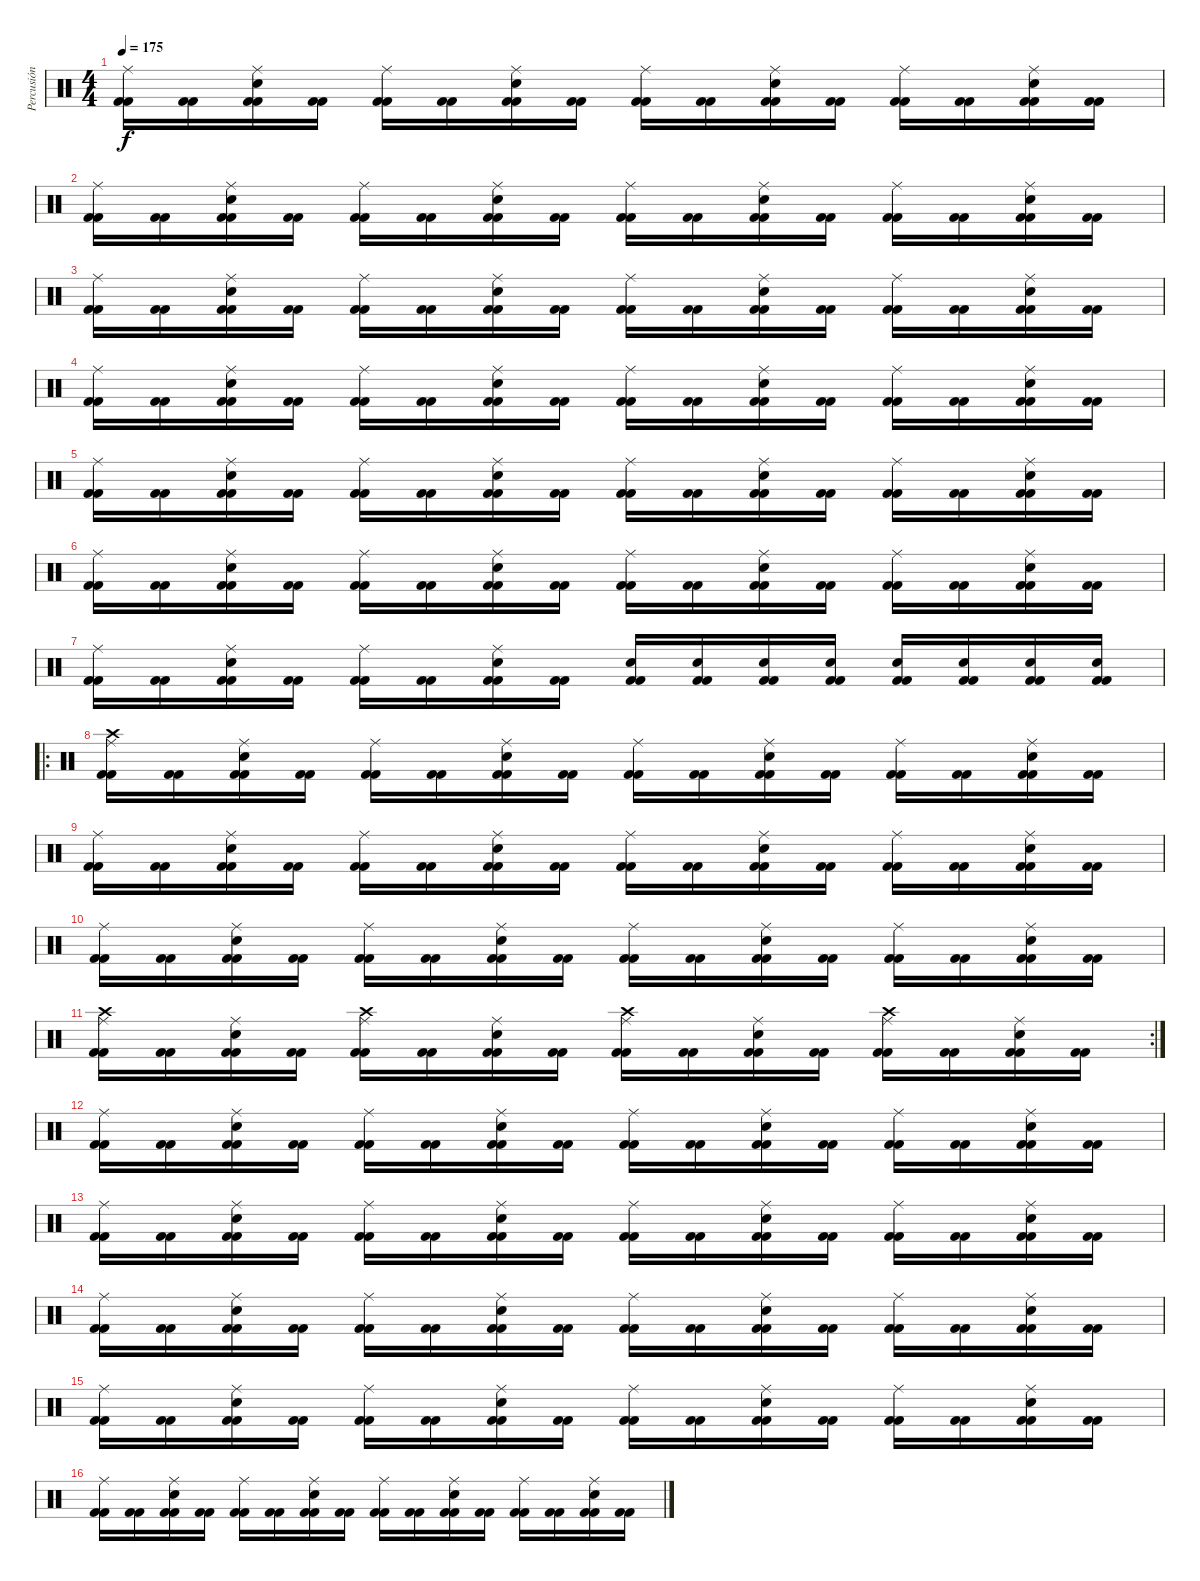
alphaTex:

\track ("Percusión" "Percusión") {instrument percussion}
\staff {score}
\articulation defaults
\ts (4 4)
\tempo 175
\clef neutral
\ks c
("Kick (hit) 2" "Kick (hit) 2" "Ride (middle)").16{dy f} ("Kick (hit) 2" "Kick (hit) 2").16 ("Kick (hit) 2" "Kick (hit) 2" "Electric Snare (hit)" "Ride (middle)").16 ("Kick (hit) 2" "Kick (hit) 2").16 ("Kick (hit) 2" "Kick (hit) 2" "Ride (middle)").16 ("Kick (hit) 2" "Kick (hit) 2").16 ("Kick (hit) 2" "Kick (hit) 2" "Electric Snare (hit)" "Ride (middle)").16 ("Kick (hit) 2" "Kick (hit) 2").16 ("Kick (hit) 2" "Kick (hit) 2" "Ride (middle)").16 ("Kick (hit) 2" "Kick (hit) 2").16 ("Kick (hit) 2" "Kick (hit) 2" "Electric Snare (hit)" "Ride (middle)").16 ("Kick (hit) 2" "Kick (hit) 2").16 ("Kick (hit) 2" "Kick (hit) 2" "Ride (middle)").16 ("Kick (hit) 2" "Kick (hit) 2").16 ("Kick (hit) 2" "Kick (hit) 2" "Electric Snare (hit)" "Ride (middle)").16 ("Kick (hit) 2" "Kick (hit) 2").16 |
("Kick (hit) 2" "Kick (hit) 2" "Ride (middle)").16 ("Kick (hit) 2" "Kick (hit) 2").16 ("Kick (hit) 2" "Kick (hit) 2" "Electric Snare (hit)" "Ride (middle)").16 ("Kick (hit) 2" "Kick (hit) 2").16 ("Kick (hit) 2" "Kick (hit) 2" "Ride (middle)").16 ("Kick (hit) 2" "Kick (hit) 2").16 ("Kick (hit) 2" "Kick (hit) 2" "Electric Snare (hit)" "Ride (middle)").16 ("Kick (hit) 2" "Kick (hit) 2").16 ("Kick (hit) 2" "Kick (hit) 2" "Ride (middle)").16 ("Kick (hit) 2" "Kick (hit) 2").16 ("Kick (hit) 2" "Kick (hit) 2" "Electric Snare (hit)" "Ride (middle)").16 ("Kick (hit) 2" "Kick (hit) 2").16 ("Kick (hit) 2" "Kick (hit) 2" "Ride (middle)").16 ("Kick (hit) 2" "Kick (hit) 2").16 ("Kick (hit) 2" "Kick (hit) 2" "Electric Snare (hit)" "Ride (middle)").16 ("Kick (hit) 2" "Kick (hit) 2").16 |
("Kick (hit) 2" "Kick (hit) 2" "Ride (middle)").16 ("Kick (hit) 2" "Kick (hit) 2").16 ("Kick (hit) 2" "Kick (hit) 2" "Electric Snare (hit)" "Ride (middle)").16 ("Kick (hit) 2" "Kick (hit) 2").16 ("Kick (hit) 2" "Kick (hit) 2" "Ride (middle)").16 ("Kick (hit) 2" "Kick (hit) 2").16 ("Kick (hit) 2" "Kick (hit) 2" "Electric Snare (hit)" "Ride (middle)").16 ("Kick (hit) 2" "Kick (hit) 2").16 ("Kick (hit) 2" "Kick (hit) 2" "Ride (middle)").16 ("Kick (hit) 2" "Kick (hit) 2").16 ("Kick (hit) 2" "Kick (hit) 2" "Electric Snare (hit)" "Ride (middle)").16 ("Kick (hit) 2" "Kick (hit) 2").16 ("Kick (hit) 2" "Kick (hit) 2" "Ride (middle)").16 ("Kick (hit) 2" "Kick (hit) 2").16 ("Kick (hit) 2" "Kick (hit) 2" "Electric Snare (hit)" "Ride (middle)").16 ("Kick (hit) 2" "Kick (hit) 2").16 |
("Kick (hit) 2" "Kick (hit) 2" "Ride (middle)").16 ("Kick (hit) 2" "Kick (hit) 2").16 ("Kick (hit) 2" "Kick (hit) 2" "Electric Snare (hit)" "Ride (middle)").16 ("Kick (hit) 2" "Kick (hit) 2").16 ("Kick (hit) 2" "Kick (hit) 2" "Ride (middle)").16 ("Kick (hit) 2" "Kick (hit) 2").16 ("Kick (hit) 2" "Kick (hit) 2" "Electric Snare (hit)" "Ride (middle)").16 ("Kick (hit) 2" "Kick (hit) 2").16 ("Kick (hit) 2" "Kick (hit) 2" "Ride (middle)").16 ("Kick (hit) 2" "Kick (hit) 2").16 ("Kick (hit) 2" "Kick (hit) 2" "Electric Snare (hit)" "Ride (middle)").16 ("Kick (hit) 2" "Kick (hit) 2").16 ("Kick (hit) 2" "Kick (hit) 2" "Ride (middle)").16 ("Kick (hit) 2" "Kick (hit) 2").16 ("Kick (hit) 2" "Kick (hit) 2" "Electric Snare (hit)" "Ride (middle)").16 ("Kick (hit) 2" "Kick (hit) 2").16 |
("Kick (hit) 2" "Kick (hit) 2" "Ride (middle)").16 ("Kick (hit) 2" "Kick (hit) 2").16 ("Kick (hit) 2" "Kick (hit) 2" "Electric Snare (hit)" "Ride (middle)").16 ("Kick (hit) 2" "Kick (hit) 2").16 ("Kick (hit) 2" "Kick (hit) 2" "Ride (middle)").16 ("Kick (hit) 2" "Kick (hit) 2").16 ("Kick (hit) 2" "Kick (hit) 2" "Electric Snare (hit)" "Ride (middle)").16 ("Kick (hit) 2" "Kick (hit) 2").16 ("Kick (hit) 2" "Kick (hit) 2" "Ride (middle)").16 ("Kick (hit) 2" "Kick (hit) 2").16 ("Kick (hit) 2" "Kick (hit) 2" "Electric Snare (hit)" "Ride (middle)").16 ("Kick (hit) 2" "Kick (hit) 2").16 ("Kick (hit) 2" "Kick (hit) 2" "Ride (middle)").16 ("Kick (hit) 2" "Kick (hit) 2").16 ("Kick (hit) 2" "Kick (hit) 2" "Electric Snare (hit)" "Ride (middle)").16 ("Kick (hit) 2" "Kick (hit) 2").16 |
("Kick (hit) 2" "Kick (hit) 2" "Ride (middle)").16 ("Kick (hit) 2" "Kick (hit) 2").16 ("Kick (hit) 2" "Kick (hit) 2" "Electric Snare (hit)" "Ride (middle)").16 ("Kick (hit) 2" "Kick (hit) 2").16 ("Kick (hit) 2" "Kick (hit) 2" "Ride (middle)").16 ("Kick (hit) 2" "Kick (hit) 2").16 ("Kick (hit) 2" "Kick (hit) 2" "Electric Snare (hit)" "Ride (middle)").16 ("Kick (hit) 2" "Kick (hit) 2").16 ("Kick (hit) 2" "Kick (hit) 2" "Ride (middle)").16 ("Kick (hit) 2" "Kick (hit) 2").16 ("Kick (hit) 2" "Kick (hit) 2" "Electric Snare (hit)" "Ride (middle)").16 ("Kick (hit) 2" "Kick (hit) 2").16 ("Kick (hit) 2" "Kick (hit) 2" "Ride (middle)").16 ("Kick (hit) 2" "Kick (hit) 2").16 ("Kick (hit) 2" "Kick (hit) 2" "Electric Snare (hit)" "Ride (middle)").16 ("Kick (hit) 2" "Kick (hit) 2").16 |
("Kick (hit) 2" "Kick (hit) 2" "Ride (middle)").16 ("Kick (hit) 2" "Kick (hit) 2").16 ("Kick (hit) 2" "Kick (hit) 2" "Electric Snare (hit)" "Ride (middle)").16 ("Kick (hit) 2" "Kick (hit) 2").16 ("Kick (hit) 2" "Kick (hit) 2" "Ride (middle)").16 ("Kick (hit) 2" "Kick (hit) 2").16 ("Kick (hit) 2" "Kick (hit) 2" "Electric Snare (hit)" "Ride (middle)").16 ("Kick (hit) 2" "Kick (hit) 2").16 ("Kick (hit) 2" "Kick (hit) 2" "Electric Snare (hit)").16 ("Kick (hit) 2" "Kick (hit) 2" "Electric Snare (hit)").16 ("Kick (hit) 2" "Kick (hit) 2" "Electric Snare (hit)").16 ("Kick (hit) 2" "Kick (hit) 2" "Electric Snare (hit)").16 ("Kick (hit) 2" "Kick (hit) 2" "Electric Snare (hit)").16 ("Kick (hit) 2" "Kick (hit) 2" "Electric Snare (hit)").16 ("Kick (hit) 2" "Kick (hit) 2" "Electric Snare (hit)").16 ("Kick (hit) 2" "Kick (hit) 2" "Electric Snare (hit)").16 |
\ro
("Kick (hit) 2" "Kick (hit) 2" "Ride (middle)" "Crash high (hit)").16 ("Kick (hit) 2" "Kick (hit) 2").16 ("Kick (hit) 2" "Kick (hit) 2" "Electric Snare (hit)" "Ride (middle)").16 ("Kick (hit) 2" "Kick (hit) 2").16 ("Kick (hit) 2" "Kick (hit) 2" "Ride (middle)").16 ("Kick (hit) 2" "Kick (hit) 2").16 ("Kick (hit) 2" "Kick (hit) 2" "Electric Snare (hit)" "Ride (middle)").16 ("Kick (hit) 2" "Kick (hit) 2").16 ("Kick (hit) 2" "Kick (hit) 2" "Ride (middle)").16 ("Kick (hit) 2" "Kick (hit) 2").16 ("Kick (hit) 2" "Kick (hit) 2" "Electric Snare (hit)" "Ride (middle)").16 ("Kick (hit) 2" "Kick (hit) 2").16 ("Kick (hit) 2" "Kick (hit) 2" "Ride (middle)").16 ("Kick (hit) 2" "Kick (hit) 2").16 ("Kick (hit) 2" "Kick (hit) 2" "Electric Snare (hit)" "Ride (middle)").16 ("Kick (hit) 2" "Kick (hit) 2").16 |
("Kick (hit) 2" "Kick (hit) 2" "Ride (middle)").16 ("Kick (hit) 2" "Kick (hit) 2").16 ("Kick (hit) 2" "Kick (hit) 2" "Electric Snare (hit)" "Ride (middle)").16 ("Kick (hit) 2" "Kick (hit) 2").16 ("Kick (hit) 2" "Kick (hit) 2" "Ride (middle)").16 ("Kick (hit) 2" "Kick (hit) 2").16 ("Kick (hit) 2" "Kick (hit) 2" "Electric Snare (hit)" "Ride (middle)").16 ("Kick (hit) 2" "Kick (hit) 2").16 ("Kick (hit) 2" "Kick (hit) 2" "Ride (middle)").16 ("Kick (hit) 2" "Kick (hit) 2").16 ("Kick (hit) 2" "Kick (hit) 2" "Electric Snare (hit)" "Ride (middle)").16 ("Kick (hit) 2" "Kick (hit) 2").16 ("Kick (hit) 2" "Kick (hit) 2" "Ride (middle)").16 ("Kick (hit) 2" "Kick (hit) 2").16 ("Kick (hit) 2" "Kick (hit) 2" "Electric Snare (hit)" "Ride (middle)").16 ("Kick (hit) 2" "Kick (hit) 2").16 |
("Kick (hit) 2" "Kick (hit) 2" "Ride (middle)").16 ("Kick (hit) 2" "Kick (hit) 2").16 ("Kick (hit) 2" "Kick (hit) 2" "Electric Snare (hit)" "Ride (middle)").16 ("Kick (hit) 2" "Kick (hit) 2").16 ("Kick (hit) 2" "Kick (hit) 2" "Ride (middle)").16 ("Kick (hit) 2" "Kick (hit) 2").16 ("Kick (hit) 2" "Kick (hit) 2" "Electric Snare (hit)" "Ride (middle)").16 ("Kick (hit) 2" "Kick (hit) 2").16 ("Kick (hit) 2" "Kick (hit) 2" "Ride (middle)").16 ("Kick (hit) 2" "Kick (hit) 2").16 ("Kick (hit) 2" "Kick (hit) 2" "Electric Snare (hit)" "Ride (middle)").16 ("Kick (hit) 2" "Kick (hit) 2").16 ("Kick (hit) 2" "Kick (hit) 2" "Ride (middle)").16 ("Kick (hit) 2" "Kick (hit) 2").16 ("Kick (hit) 2" "Kick (hit) 2" "Electric Snare (hit)" "Ride (middle)").16 ("Kick (hit) 2" "Kick (hit) 2").16 |
\rc 2
("Kick (hit) 2" "Kick (hit) 2" "Ride (middle)" "Crash high (hit)").16 ("Kick (hit) 2" "Kick (hit) 2").16 ("Kick (hit) 2" "Kick (hit) 2" "Electric Snare (hit)" "Ride (middle)").16 ("Kick (hit) 2" "Kick (hit) 2").16 ("Kick (hit) 2" "Kick (hit) 2" "Ride (middle)" "Crash high (hit)").16 ("Kick (hit) 2" "Kick (hit) 2").16 ("Kick (hit) 2" "Kick (hit) 2" "Electric Snare (hit)" "Ride (middle)").16 ("Kick (hit) 2" "Kick (hit) 2").16 ("Kick (hit) 2" "Kick (hit) 2" "Ride (middle)" "Crash high (hit)").16 ("Kick (hit) 2" "Kick (hit) 2").16 ("Kick (hit) 2" "Kick (hit) 2" "Electric Snare (hit)" "Ride (middle)").16 ("Kick (hit) 2" "Kick (hit) 2").16 ("Kick (hit) 2" "Kick (hit) 2" "Ride (middle)" "Crash high (hit)").16 ("Kick (hit) 2" "Kick (hit) 2").16 ("Kick (hit) 2" "Kick (hit) 2" "Electric Snare (hit)" "Ride (middle)").16 ("Kick (hit) 2" "Kick (hit) 2").16 |
("Kick (hit) 2" "Kick (hit) 2" "Ride (middle)").16 ("Kick (hit) 2" "Kick (hit) 2").16 ("Kick (hit) 2" "Kick (hit) 2" "Electric Snare (hit)" "Ride (middle)").16 ("Kick (hit) 2" "Kick (hit) 2").16 ("Kick (hit) 2" "Kick (hit) 2" "Ride (middle)").16 ("Kick (hit) 2" "Kick (hit) 2").16 ("Kick (hit) 2" "Kick (hit) 2" "Electric Snare (hit)" "Ride (middle)").16 ("Kick (hit) 2" "Kick (hit) 2").16 ("Kick (hit) 2" "Kick (hit) 2" "Ride (middle)").16 ("Kick (hit) 2" "Kick (hit) 2").16 ("Kick (hit) 2" "Kick (hit) 2" "Electric Snare (hit)" "Ride (middle)").16 ("Kick (hit) 2" "Kick (hit) 2").16 ("Kick (hit) 2" "Kick (hit) 2" "Ride (middle)").16 ("Kick (hit) 2" "Kick (hit) 2").16 ("Kick (hit) 2" "Kick (hit) 2" "Electric Snare (hit)" "Ride (middle)").16 ("Kick (hit) 2" "Kick (hit) 2").16 |
("Kick (hit) 2" "Kick (hit) 2" "Ride (middle)").16 ("Kick (hit) 2" "Kick (hit) 2").16 ("Kick (hit) 2" "Kick (hit) 2" "Electric Snare (hit)" "Ride (middle)").16 ("Kick (hit) 2" "Kick (hit) 2").16 ("Kick (hit) 2" "Kick (hit) 2" "Ride (middle)").16 ("Kick (hit) 2" "Kick (hit) 2").16 ("Kick (hit) 2" "Kick (hit) 2" "Electric Snare (hit)" "Ride (middle)").16 ("Kick (hit) 2" "Kick (hit) 2").16 ("Kick (hit) 2" "Kick (hit) 2" "Ride (middle)").16 ("Kick (hit) 2" "Kick (hit) 2").16 ("Kick (hit) 2" "Kick (hit) 2" "Electric Snare (hit)" "Ride (middle)").16 ("Kick (hit) 2" "Kick (hit) 2").16 ("Kick (hit) 2" "Kick (hit) 2" "Ride (middle)").16 ("Kick (hit) 2" "Kick (hit) 2").16 ("Kick (hit) 2" "Kick (hit) 2" "Electric Snare (hit)" "Ride (middle)").16 ("Kick (hit) 2" "Kick (hit) 2").16 |
("Kick (hit) 2" "Kick (hit) 2" "Ride (middle)").16 ("Kick (hit) 2" "Kick (hit) 2").16 ("Kick (hit) 2" "Kick (hit) 2" "Electric Snare (hit)" "Ride (middle)").16 ("Kick (hit) 2" "Kick (hit) 2").16 ("Kick (hit) 2" "Kick (hit) 2" "Ride (middle)").16 ("Kick (hit) 2" "Kick (hit) 2").16 ("Kick (hit) 2" "Kick (hit) 2" "Electric Snare (hit)" "Ride (middle)").16 ("Kick (hit) 2" "Kick (hit) 2").16 ("Kick (hit) 2" "Kick (hit) 2" "Ride (middle)").16 ("Kick (hit) 2" "Kick (hit) 2").16 ("Kick (hit) 2" "Kick (hit) 2" "Electric Snare (hit)" "Ride (middle)").16 ("Kick (hit) 2" "Kick (hit) 2").16 ("Kick (hit) 2" "Kick (hit) 2" "Ride (middle)").16 ("Kick (hit) 2" "Kick (hit) 2").16 ("Kick (hit) 2" "Kick (hit) 2" "Electric Snare (hit)" "Ride (middle)").16 ("Kick (hit) 2" "Kick (hit) 2").16 |
("Kick (hit) 2" "Kick (hit) 2" "Ride (middle)").16 ("Kick (hit) 2" "Kick (hit) 2").16 ("Kick (hit) 2" "Kick (hit) 2" "Electric Snare (hit)" "Ride (middle)").16 ("Kick (hit) 2" "Kick (hit) 2").16 ("Kick (hit) 2" "Kick (hit) 2" "Ride (middle)").16 ("Kick (hit) 2" "Kick (hit) 2").16 ("Kick (hit) 2" "Kick (hit) 2" "Electric Snare (hit)" "Ride (middle)").16 ("Kick (hit) 2" "Kick (hit) 2").16 ("Kick (hit) 2" "Kick (hit) 2" "Ride (middle)").16 ("Kick (hit) 2" "Kick (hit) 2").16 ("Kick (hit) 2" "Kick (hit) 2" "Electric Snare (hit)" "Ride (middle)").16 ("Kick (hit) 2" "Kick (hit) 2").16 ("Kick (hit) 2" "Kick (hit) 2" "Ride (middle)").16 ("Kick (hit) 2" "Kick (hit) 2").16 ("Kick (hit) 2" "Kick (hit) 2" "Electric Snare (hit)" "Ride (middle)").16 ("Kick (hit) 2" "Kick (hit) 2").16 |
("Kick (hit) 2" "Kick (hit) 2" "Ride (middle)").16 ("Kick (hit) 2" "Kick (hit) 2").16 ("Kick (hit) 2" "Kick (hit) 2" "Electric Snare (hit)" "Ride (middle)").16 ("Kick (hit) 2" "Kick (hit) 2").16 ("Kick (hit) 2" "Kick (hit) 2" "Ride (middle)").16 ("Kick (hit) 2" "Kick (hit) 2").16 ("Kick (hit) 2" "Kick (hit) 2" "Electric Snare (hit)" "Ride (middle)").16 ("Kick (hit) 2" "Kick (hit) 2").16 ("Kick (hit) 2" "Kick (hit) 2" "Ride (middle)").16 ("Kick (hit) 2" "Kick (hit) 2").16 ("Kick (hit) 2" "Kick (hit) 2" "Electric Snare (hit)" "Ride (middle)").16 ("Kick (hit) 2" "Kick (hit) 2").16 ("Kick (hit) 2" "Kick (hit) 2" "Ride (middle)").16 ("Kick (hit) 2" "Kick (hit) 2").16 ("Kick (hit) 2" "Kick (hit) 2" "Electric Snare (hit)" "Ride (middle)").16 ("Kick (hit) 2" "Kick (hit) 2").16
